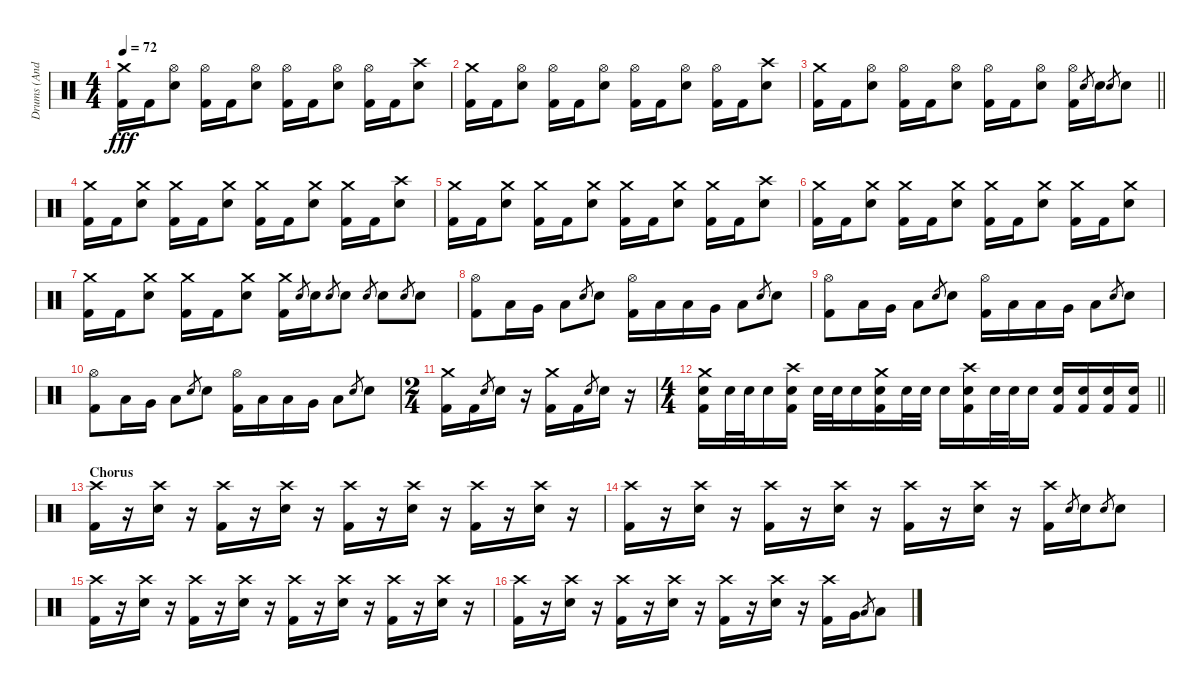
\track ("Drums (Andy)" "Drums (And") {instrument percussion}
\staff {score}
\articulation defaults
\ts (4 4)
\tempo 72
\clef neutral
\ks c
("Crash medium (hit)" "Kick (hit) 2").16{dy fff} "Kick (hit) 2".16 ("Hi-Hat (open)" "Snare (hit) 2").8 ("Hi-Hat (open)" "Kick (hit) 2").16 "Kick (hit) 2".16 ("Hi-Hat (open)" "Snare (hit) 2").8 ("Hi-Hat (open)" "Kick (hit) 2").16 "Kick (hit) 2".16 ("Hi-Hat (open)" "Snare (hit) 2").8 ("Hi-Hat (open)" "Kick (hit) 2").16 "Kick (hit) 2".16 ("Crash high (hit)" "Snare (hit) 2").8 |
("Crash medium (hit)" "Kick (hit) 2").16 "Kick (hit) 2".16 ("Hi-Hat (open)" "Snare (hit) 2").8 ("Hi-Hat (open)" "Kick (hit) 2").16 "Kick (hit) 2".16 ("Hi-Hat (open)" "Snare (hit) 2").8 ("Hi-Hat (open)" "Kick (hit) 2").16 "Kick (hit) 2".16 ("Hi-Hat (open)" "Snare (hit) 2").8 ("Hi-Hat (open)" "Kick (hit) 2").16 "Kick (hit) 2".16 ("Crash high (hit)" "Snare (hit) 2").8 |
\barLineRight lightlight
("Crash medium (hit)" "Kick (hit) 2").16 "Kick (hit) 2".16 ("Hi-Hat (open)" "Snare (hit) 2").8 ("Hi-Hat (open)" "Kick (hit) 2").16 "Kick (hit) 2".16 ("Hi-Hat (open)" "Snare (hit) 2").8 ("Hi-Hat (open)" "Kick (hit) 2").16 "Kick (hit) 2".16 ("Hi-Hat (open)" "Snare (hit) 2").8 ("Hi-Hat (open)" "Kick (hit) 2").16 "Snare (hit) 2".8{gr} "Snare (hit) 2".16 "Snare (hit) 2".8{gr} "Snare (hit) 2".8 |
("Crash medium (hit)" "Kick (hit) 2").16 "Kick (hit) 2".16 ("Crash medium (hit)" "Snare (hit) 2").8 ("Crash medium (hit)" "Kick (hit) 2").16 "Kick (hit) 2".16 ("Crash medium (hit)" "Snare (hit) 2").8 ("Crash medium (hit)" "Kick (hit) 2").16 "Kick (hit) 2".16 ("Crash medium (hit)" "Snare (hit) 2").8 ("Crash medium (hit)" "Kick (hit) 2").16 "Kick (hit) 2".16 ("Crash high (hit)" "Snare (hit) 2").8 |
("Crash medium (hit)" "Kick (hit) 2").16 "Kick (hit) 2".16 ("Crash medium (hit)" "Snare (hit) 2").8 ("Crash medium (hit)" "Kick (hit) 2").16 "Kick (hit) 2".16 ("Crash medium (hit)" "Snare (hit) 2").8 ("Crash medium (hit)" "Kick (hit) 2").16 "Kick (hit) 2".16 ("Crash medium (hit)" "Snare (hit) 2").8 ("Crash medium (hit)" "Kick (hit) 2").16 "Kick (hit) 2".16 ("Crash high (hit)" "Snare (hit) 2").8 |
("Crash medium (hit)" "Kick (hit) 2").16 "Kick (hit) 2".16 ("Crash medium (hit)" "Snare (hit) 2").8 ("Crash medium (hit)" "Kick (hit) 2").16 "Kick (hit) 2".16 ("Crash medium (hit)" "Snare (hit) 2").8 ("Crash medium (hit)" "Kick (hit) 2").16 "Kick (hit) 2".16 ("Crash medium (hit)" "Snare (hit) 2").8 ("Crash medium (hit)" "Kick (hit) 2").16 "Kick (hit) 2".16 ("Crash medium (hit)" "Snare (hit) 2").8 |
("Crash medium (hit)" "Kick (hit) 2").16 "Kick (hit) 2".16 ("Crash medium (hit)" "Snare (hit) 2").8 ("Crash medium (hit)" "Kick (hit) 2").16 "Kick (hit) 2".16 ("Crash medium (hit)" "Snare (hit) 2").8 ("Crash medium (hit)" "Kick (hit) 2").16 "Snare (hit) 2".8{gr} "Snare (hit) 2".16 "Snare (hit) 2".8{gr} "Snare (hit) 2".8 "Snare (hit) 2".8{gr} "Snare (hit) 2".8 "Snare (hit) 2".8{gr} "Snare (hit) 2".8 |
("Hi-Hat (open)" "Kick (hit) 2").8 "Low Floor Tom (hit)".16 "Very Low Tom (hit)".16 "Low Floor Tom (hit)".8 "Snare (hit) 2".8{gr} "Snare (hit) 2".8 ("Hi-Hat (open)" "Kick (hit) 2").16 "Low Floor Tom (hit)".16 "Low Floor Tom (hit)".16 "Very Low Tom (hit)".16 "Low Floor Tom (hit)".8 "Snare (hit) 2".8{gr} "Snare (hit) 2".8 |
("Hi-Hat (open)" "Kick (hit) 2").8 "Low Floor Tom (hit)".16 "Very Low Tom (hit)".16 "Low Floor Tom (hit)".8 "Snare (hit) 2".8{gr} "Snare (hit) 2".8 ("Hi-Hat (open)" "Kick (hit) 2").16 "Low Floor Tom (hit)".16 "Low Floor Tom (hit)".16 "Very Low Tom (hit)".16 "Low Floor Tom (hit)".8 "Snare (hit) 2".8{gr} "Snare (hit) 2".8 |
("Hi-Hat (open)" "Kick (hit) 2").8 "Low Floor Tom (hit)".16 "Very Low Tom (hit)".16 "Low Floor Tom (hit)".8 "Snare (hit) 2".8{gr} "Snare (hit) 2".8 ("Hi-Hat (open)" "Kick (hit) 2").16 "Low Floor Tom (hit)".16 "Low Floor Tom (hit)".16 "Very Low Tom (hit)".16 "Low Floor Tom (hit)".8 "Snare (hit) 2".8{gr} "Snare (hit) 2".8 |
\ts (2 4)
("Crash medium (hit)" "Kick (hit) 2").16 "Kick (hit) 2".16 "Snare (hit) 2".8{gr} "Snare (hit) 2".16 r.16 ("Crash medium (hit)" "Kick (hit) 2").16 "Kick (hit) 2".16 "Snare (hit) 2".8{gr} "Snare (hit) 2".16 r.16 |
\ts (4 4)
\barLineRight lightlight
("Crash medium (hit)" "Snare (hit) 2" "Kick (hit) 2").16 "Snare (hit) 2".32 "Snare (hit) 2".32 "Snare (hit) 2".16 ("Crash high (hit)" "Snare (hit) 2" "Kick (hit) 2").16 "Snare (hit) 2".32 "Snare (hit) 2".32 "Snare (hit) 2".16 ("Crash medium (hit)" "Snare (hit) 2" "Kick (hit) 2").16 "Snare (hit) 2".32 "Snare (hit) 2".32 "Snare (hit) 2".16 ("Crash high (hit)" "Snare (hit) 2" "Kick (hit) 2").16 "Snare (hit) 2".32 "Snare (hit) 2".32 "Snare (hit) 2".16 ("Snare (hit) 2" "Kick (hit) 2").16 ("Snare (hit) 2" "Kick (hit) 2").16 ("Snare (hit) 2" "Kick (hit) 2").16 ("Snare (hit) 2" "Kick (hit) 2").16 |
\section ("" "Chorus")
("Crash high (hit)" "Kick (hit) 2").16 r.16 ("Crash high (hit)" "Snare (hit) 2").16 r.16 ("Crash high (hit)" "Kick (hit) 2").16 r.16 ("Crash high (hit)" "Snare (hit) 2").16 r.16 ("Crash high (hit)" "Kick (hit) 2").16 r.16 ("Crash high (hit)" "Snare (hit) 2").16 r.16 ("Crash high (hit)" "Kick (hit) 2").16 r.16 ("Crash high (hit)" "Snare (hit) 2").16 r.16 |
("Crash high (hit)" "Kick (hit) 2").16 r.16 ("Crash high (hit)" "Snare (hit) 2").16 r.16 ("Crash high (hit)" "Kick (hit) 2").16 r.16 ("Crash high (hit)" "Snare (hit) 2").16 r.16 ("Crash high (hit)" "Kick (hit) 2").16 r.16 ("Crash high (hit)" "Snare (hit) 2").16 r.16 ("Crash high (hit)" "Kick (hit) 2").16 "Snare (hit) 2".8{gr} "Snare (hit) 2".16 "Snare (hit) 2".8{gr} "Snare (hit) 2".8 |
("Crash high (hit)" "Kick (hit) 2").16 r.16 ("Crash high (hit)" "Snare (hit) 2").16 r.16 ("Crash high (hit)" "Kick (hit) 2").16 r.16 ("Crash high (hit)" "Snare (hit) 2").16 r.16 ("Crash high (hit)" "Kick (hit) 2").16 r.16 ("Crash high (hit)" "Snare (hit) 2").16 r.16 ("Crash high (hit)" "Kick (hit) 2").16 r.16 ("Crash high (hit)" "Snare (hit) 2").16 r.16 |
("Crash high (hit)" "Kick (hit) 2").16 r.16 ("Crash high (hit)" "Snare (hit) 2").16 r.16 ("Crash high (hit)" "Kick (hit) 2").16 r.16 ("Crash high (hit)" "Snare (hit) 2").16 r.16 ("Crash high (hit)" "Kick (hit) 2").16 r.16 ("Crash high (hit)" "Snare (hit) 2").16 r.16 ("Crash high (hit)" "Kick (hit) 2").16 "Very Low Tom (hit)".16 "Low Floor Tom (hit)".8{gr} "Low Floor Tom (hit)".8
